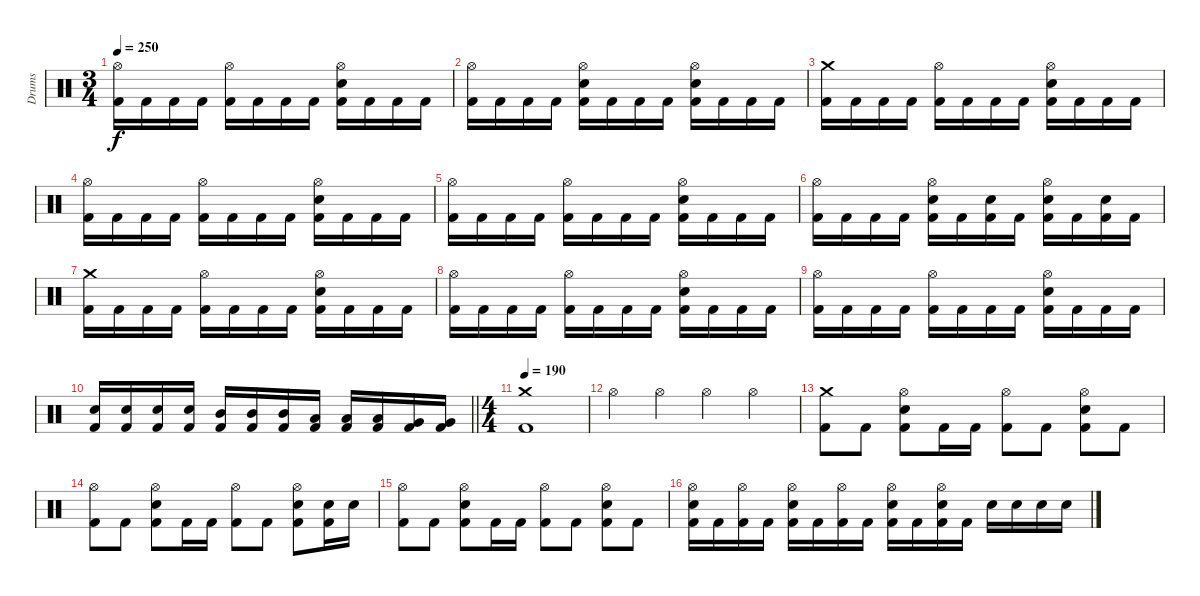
\track ("Drums" "Drums") {instrument percussion}
\staff {score}
\articulation defaults
\ts (3 4)
\tempo 250
\clef neutral
\ks c
("Hi-Hat (open)" "Kick (hit) 2").16{dy f} "Kick (hit) 2".16 "Kick (hit) 2".16 "Kick (hit) 2".16 ("Hi-Hat (open)" "Kick (hit) 2").16 "Kick (hit) 2".16 "Kick (hit) 2".16 "Kick (hit) 2".16 ("Kick (hit) 2" "Hi-Hat (open)" "Snare (hit) 2").16 "Kick (hit) 2".16 "Kick (hit) 2".16 "Kick (hit) 2".16 |
("Hi-Hat (open)" "Kick (hit) 2").16 "Kick (hit) 2".16 "Kick (hit) 2".16 "Kick (hit) 2".16 ("Kick (hit) 2" "Hi-Hat (open)" "Snare (hit) 2").16 "Kick (hit) 2".16 "Kick (hit) 2".16 "Kick (hit) 2".16 ("Kick (hit) 2" "Hi-Hat (open)" "Snare (hit) 2").16 "Kick (hit) 2".16 "Kick (hit) 2".16 "Kick (hit) 2".16 |
("Crash medium (hit)" "Kick (hit) 2").16 "Kick (hit) 2".16 "Kick (hit) 2".16 "Kick (hit) 2".16 ("Hi-Hat (open)" "Kick (hit) 2").16 "Kick (hit) 2".16 "Kick (hit) 2".16 "Kick (hit) 2".16 ("Kick (hit) 2" "Hi-Hat (open)" "Snare (hit) 2").16 "Kick (hit) 2".16 "Kick (hit) 2".16 "Kick (hit) 2".16 |
("Hi-Hat (open)" "Kick (hit) 2").16 "Kick (hit) 2".16 "Kick (hit) 2".16 "Kick (hit) 2".16 ("Hi-Hat (open)" "Kick (hit) 2").16 "Kick (hit) 2".16 "Kick (hit) 2".16 "Kick (hit) 2".16 ("Kick (hit) 2" "Hi-Hat (open)" "Snare (hit) 2").16 "Kick (hit) 2".16 "Kick (hit) 2".16 "Kick (hit) 2".16 |
("Hi-Hat (open)" "Kick (hit) 2").16 "Kick (hit) 2".16 "Kick (hit) 2".16 "Kick (hit) 2".16 ("Hi-Hat (open)" "Kick (hit) 2").16 "Kick (hit) 2".16 "Kick (hit) 2".16 "Kick (hit) 2".16 ("Kick (hit) 2" "Hi-Hat (open)" "Snare (hit) 2").16 "Kick (hit) 2".16 "Kick (hit) 2".16 "Kick (hit) 2".16 |
("Hi-Hat (open)" "Kick (hit) 2").16 "Kick (hit) 2".16 "Kick (hit) 2".16 "Kick (hit) 2".16 ("Kick (hit) 2" "Hi-Hat (open)" "Snare (hit) 2").16 "Kick (hit) 2".16 ("Kick (hit) 2" "Snare (hit) 2").16 "Kick (hit) 2".16 ("Kick (hit) 2" "Hi-Hat (open)" "Snare (hit) 2").16 "Kick (hit) 2".16 ("Kick (hit) 2" "Snare (hit) 2").16 "Kick (hit) 2".16 |
("Crash medium (hit)" "Kick (hit) 2").16 "Kick (hit) 2".16 "Kick (hit) 2".16 "Kick (hit) 2".16 ("Hi-Hat (open)" "Kick (hit) 2").16 "Kick (hit) 2".16 "Kick (hit) 2".16 "Kick (hit) 2".16 ("Kick (hit) 2" "Hi-Hat (open)" "Snare (hit) 2").16 "Kick (hit) 2".16 "Kick (hit) 2".16 "Kick (hit) 2".16 |
("Hi-Hat (open)" "Kick (hit) 2").16 "Kick (hit) 2".16 "Kick (hit) 2".16 "Kick (hit) 2".16 ("Hi-Hat (open)" "Kick (hit) 2").16 "Kick (hit) 2".16 "Kick (hit) 2".16 "Kick (hit) 2".16 ("Kick (hit) 2" "Hi-Hat (open)" "Snare (hit) 2").16 "Kick (hit) 2".16 "Kick (hit) 2".16 "Kick (hit) 2".16 |
("Hi-Hat (open)" "Kick (hit) 2").16 "Kick (hit) 2".16 "Kick (hit) 2".16 "Kick (hit) 2".16 ("Hi-Hat (open)" "Kick (hit) 2").16 "Kick (hit) 2".16 "Kick (hit) 2".16 "Kick (hit) 2".16 ("Kick (hit) 2" "Hi-Hat (open)" "Snare (hit) 2").16 "Kick (hit) 2".16 "Kick (hit) 2".16 "Kick (hit) 2".16 |
\barLineRight lightlight
("Kick (hit) 2" "Snare (hit) 2").16 ("Kick (hit) 2" "Snare (hit) 2").16 ("Kick (hit) 2" "Snare (hit) 2").16 ("Kick (hit) 2" "Snare (hit) 2").16 ("Kick (hit) 2" "Mid Tom (hit)").16 ("Kick (hit) 2" "Mid Tom (hit)").16 ("Kick (hit) 2" "Mid Tom (hit)").16 ("Kick (hit) 2" "Low Tom (hit)").16 ("Kick (hit) 2" "Low Tom (hit)").16 ("Kick (hit) 2" "Low Tom (hit)").16 ("Kick (hit) 2" "Very Low Tom (hit)").16 ("Kick (hit) 2" "Very Low Tom (hit)").16 |
\ts (4 4)
\tempo 190
("Crash medium (hit)" "Kick (hit) 2").1 |
"Hi-Hat (open)".4 "Hi-Hat (open)".4 "Hi-Hat (open)".4 "Hi-Hat (open)".4 |
("Crash medium (hit)" "Kick (hit) 2").8 "Kick (hit) 2".8 ("Kick (hit) 2" "Hi-Hat (open)" "Snare (hit) 2").8 "Kick (hit) 2".16 "Kick (hit) 2".16 ("Hi-Hat (open)" "Kick (hit) 2").8 "Kick (hit) 2".8 ("Kick (hit) 2" "Hi-Hat (open)" "Snare (hit) 2").8 "Kick (hit) 2".8 |
("Hi-Hat (open)" "Kick (hit) 2").8 "Kick (hit) 2".8 ("Kick (hit) 2" "Hi-Hat (open)" "Snare (hit) 2").8 "Kick (hit) 2".16 "Kick (hit) 2".16 ("Hi-Hat (open)" "Kick (hit) 2").8 "Kick (hit) 2".8 ("Kick (hit) 2" "Hi-Hat (open)" "Snare (hit) 2").8 ("Kick (hit) 2" "Snare (hit) 2").16 "Snare (hit) 2".16 |
("Hi-Hat (open)" "Kick (hit) 2").8 "Kick (hit) 2".8 ("Kick (hit) 2" "Hi-Hat (open)" "Snare (hit) 2").8 "Kick (hit) 2".16 "Kick (hit) 2".16 ("Hi-Hat (open)" "Kick (hit) 2").8 "Kick (hit) 2".8 ("Kick (hit) 2" "Hi-Hat (open)" "Snare (hit) 2").8 "Kick (hit) 2".8 |
("Kick (hit) 2" "Hi-Hat (open)" "Snare (hit) 2").16 "Kick (hit) 2".16 ("Hi-Hat (open)" "Kick (hit) 2").16 "Kick (hit) 2".16 ("Kick (hit) 2" "Hi-Hat (open)" "Snare (hit) 2").16 "Kick (hit) 2".16 ("Hi-Hat (open)" "Kick (hit) 2").16 "Kick (hit) 2".16 ("Kick (hit) 2" "Hi-Hat (open)" "Snare (hit) 2").16 "Kick (hit) 2".16 ("Kick (hit) 2" "Hi-Hat (open)" "Snare (hit) 2").16 "Kick (hit) 2".16 "Snare (hit) 2".16 "Snare (hit) 2".16 "Snare (hit) 2".16 "Snare (hit) 2".16
